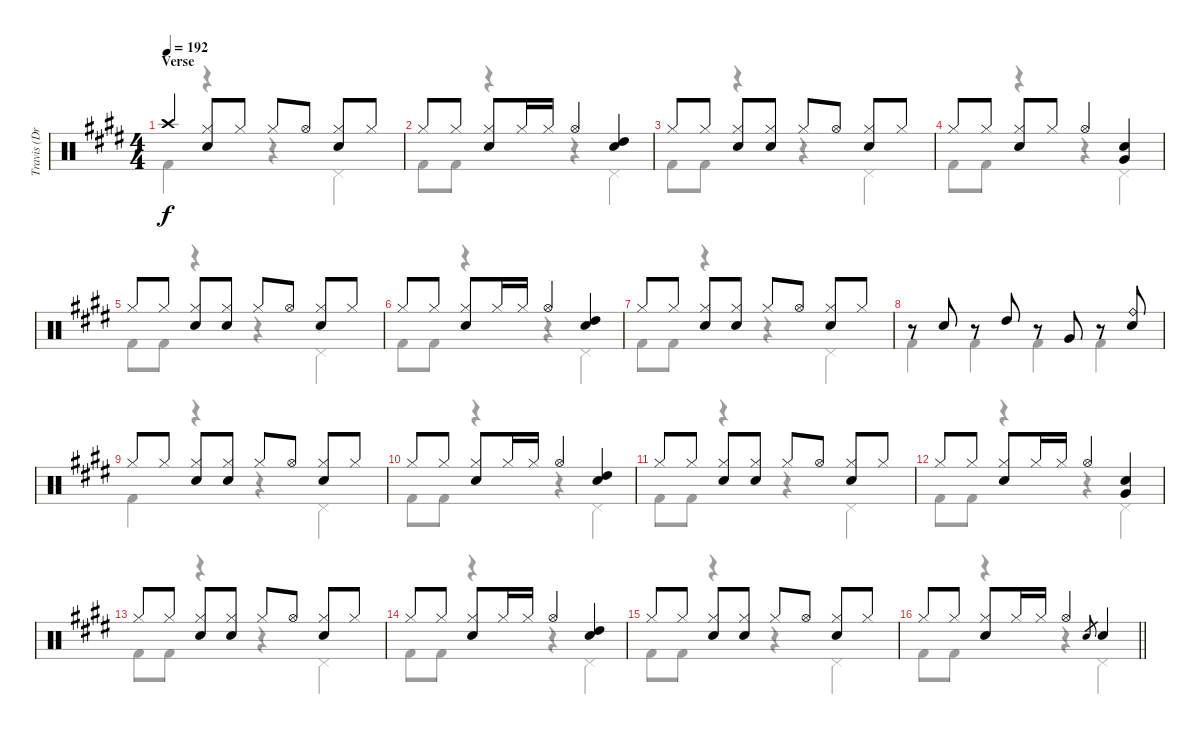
\track ("Travis (Drums)" "Travis (Dr") {instrument percussion}
\staff {score}
\articulation defaults
\voice
\ts (4 4)
\section ("" "Verse")
\tempo 192
\clef neutral
\ks e "Crash high (hit)".4{dy f}
("Hi-Hat (closed)" "Electric Snare (hit)").8 "Hi-Hat (closed)".8 "Hi-Hat (closed)".8 "Hi-Hat (open)".8 ("Hi-Hat (closed)" "Electric Snare (hit)").8 "Hi-Hat (closed)".8 |
"Hi-Hat (closed)".8 "Hi-Hat (closed)".8 ("Hi-Hat (closed)" "Electric Snare (hit)").8 "Hi-Hat (closed)".16 "Hi-Hat (closed)".16 "Hi-Hat (open)".4 ("Electric Snare (hit)" "High Tom (hit)").4 |
"Hi-Hat (closed)".8 "Hi-Hat (closed)".8 ("Hi-Hat (closed)" "Electric Snare (hit)").8 ("Hi-Hat (closed)" "Electric Snare (hit)").8 "Hi-Hat (closed)".8 "Hi-Hat (open)".8 ("Hi-Hat (closed)" "Electric Snare (hit)").8 "Hi-Hat (closed)".8 |
"Hi-Hat (closed)".8 "Hi-Hat (closed)".8 ("Hi-Hat (closed)" "Electric Snare (hit)").8 "Hi-Hat (closed)".8 "Hi-Hat (open)".4 ("Electric Snare (hit)" "Very Low Tom (hit)").4 |
"Hi-Hat (closed)".8 "Hi-Hat (closed)".8 ("Hi-Hat (closed)" "Electric Snare (hit)").8 ("Hi-Hat (closed)" "Electric Snare (hit)").8 "Hi-Hat (closed)".8 "Hi-Hat (open)".8 ("Hi-Hat (closed)" "Electric Snare (hit)").8 "Hi-Hat (closed)".8 |
"Hi-Hat (closed)".8 "Hi-Hat (closed)".8 ("Hi-Hat (closed)" "Electric Snare (hit)").8 "Hi-Hat (closed)".16 "Hi-Hat (closed)".16 "Hi-Hat (open)".4 ("Electric Snare (hit)" "High Tom (hit)").4 |
"Hi-Hat (closed)".8 "Hi-Hat (closed)".8 ("Hi-Hat (closed)" "Electric Snare (hit)").8 ("Hi-Hat (closed)" "Electric Snare (hit)").8 "Hi-Hat (closed)".8 "Hi-Hat (open)".8 ("Hi-Hat (closed)" "Electric Snare (hit)").8 "Hi-Hat (closed)".8 |
r.8 "Electric Snare (hit)".8 r.8 "High Tom (hit)".8 r.8 "Very Low Tom (hit)".8 r.8 ("Ride (bell)" "Electric Snare (hit)").8 |
"Hi-Hat (closed)".8 "Hi-Hat (closed)".8 ("Hi-Hat (closed)" "Electric Snare (hit)").8 ("Hi-Hat (closed)" "Electric Snare (hit)").8 "Hi-Hat (closed)".8 "Hi-Hat (open)".8 ("Hi-Hat (closed)" "Electric Snare (hit)").8 "Hi-Hat (closed)".8 |
"Hi-Hat (closed)".8 "Hi-Hat (closed)".8 ("Hi-Hat (closed)" "Electric Snare (hit)").8 "Hi-Hat (closed)".16 "Hi-Hat (closed)".16 "Hi-Hat (open)".4 ("Electric Snare (hit)" "High Tom (hit)").4 |
"Hi-Hat (closed)".8 "Hi-Hat (closed)".8 ("Hi-Hat (closed)" "Electric Snare (hit)").8 ("Hi-Hat (closed)" "Electric Snare (hit)").8 "Hi-Hat (closed)".8 "Hi-Hat (open)".8 ("Hi-Hat (closed)" "Electric Snare (hit)").8 "Hi-Hat (closed)".8 |
"Hi-Hat (closed)".8 "Hi-Hat (closed)".8 ("Hi-Hat (closed)" "Electric Snare (hit)").8 "Hi-Hat (closed)".16 "Hi-Hat (closed)".16 "Hi-Hat (open)".4 ("Electric Snare (hit)" "Very Low Tom (hit)").4 |
"Hi-Hat (closed)".8 "Hi-Hat (closed)".8 ("Hi-Hat (closed)" "Electric Snare (hit)").8 ("Hi-Hat (closed)" "Electric Snare (hit)").8 "Hi-Hat (closed)".8 "Hi-Hat (open)".8 ("Hi-Hat (closed)" "Electric Snare (hit)").8 "Hi-Hat (closed)".8 |
"Hi-Hat (closed)".8 "Hi-Hat (closed)".8 ("Hi-Hat (closed)" "Electric Snare (hit)").8 "Hi-Hat (closed)".16 "Hi-Hat (closed)".16 "Hi-Hat (open)".4 ("Electric Snare (hit)" "High Tom (hit)").4 |
"Hi-Hat (closed)".8 "Hi-Hat (closed)".8 ("Hi-Hat (closed)" "Electric Snare (hit)").8 ("Hi-Hat (closed)" "Electric Snare (hit)").8 "Hi-Hat (closed)".8 "Hi-Hat (open)".8 ("Hi-Hat (closed)" "Electric Snare (hit)").8 "Hi-Hat (closed)".8 |
\barLineRight lightlight "Hi-Hat (closed)".8 "Hi-Hat (closed)".8
("Hi-Hat (closed)" "Electric Snare (hit)").8 "Hi-Hat (closed)".16 "Hi-Hat (closed)".16 "Hi-Hat (open)".4 "Electric Snare (hit)".8{gr} "Electric Snare (hit)".4
\voice
\clef neutral
\ottava regular
\simile none
\ks e "Kick (hit) 2".4{dy f}
r.4 r.4 "Pedal Hi-Hat (hit)".4 |
"Kick (hit) 2".8 "Kick (hit) 2".8 r.4 r.4 "Pedal Hi-Hat (hit)".4 |
"Kick (hit) 2".8 "Kick (hit) 2".8 r.4 r.4 "Pedal Hi-Hat (hit)".4 |
"Kick (hit) 2".8 "Kick (hit) 2".8 r.4 r.4 "Pedal Hi-Hat (hit)".4 |
"Kick (hit) 2".8 "Kick (hit) 2".8 r.4 r.4 "Pedal Hi-Hat (hit)".4 |
"Kick (hit) 2".8 "Kick (hit) 2".8 r.4 r.4 "Pedal Hi-Hat (hit)".4 |
"Kick (hit) 2".8 "Kick (hit) 2".8 r.4 r.4 "Pedal Hi-Hat (hit)".4 |
"Kick (hit) 2".4 "Kick (hit) 2".4 "Kick (hit) 2".4 "Kick (hit) 2".4 |
"Kick (hit) 2".4 r.4 r.4 "Pedal Hi-Hat (hit)".4 |
"Kick (hit) 2".8 "Kick (hit) 2".8 r.4 r.4 "Pedal Hi-Hat (hit)".4 |
"Kick (hit) 2".8 "Kick (hit) 2".8 r.4 r.4 "Pedal Hi-Hat (hit)".4 |
"Kick (hit) 2".8 "Kick (hit) 2".8 r.4 r.4 "Pedal Hi-Hat (hit)".4 |
"Kick (hit) 2".8 "Kick (hit) 2".8 r.4 r.4 "Pedal Hi-Hat (hit)".4 |
"Kick (hit) 2".8 "Kick (hit) 2".8 r.4 r.4 "Pedal Hi-Hat (hit)".4 |
"Kick (hit) 2".8 "Kick (hit) 2".8 r.4 r.4 "Pedal Hi-Hat (hit)".4 |
\barLineRight lightlight "Kick (hit) 2".8 "Kick (hit) 2".8
r.4 r.4 "Pedal Hi-Hat (hit)".4
